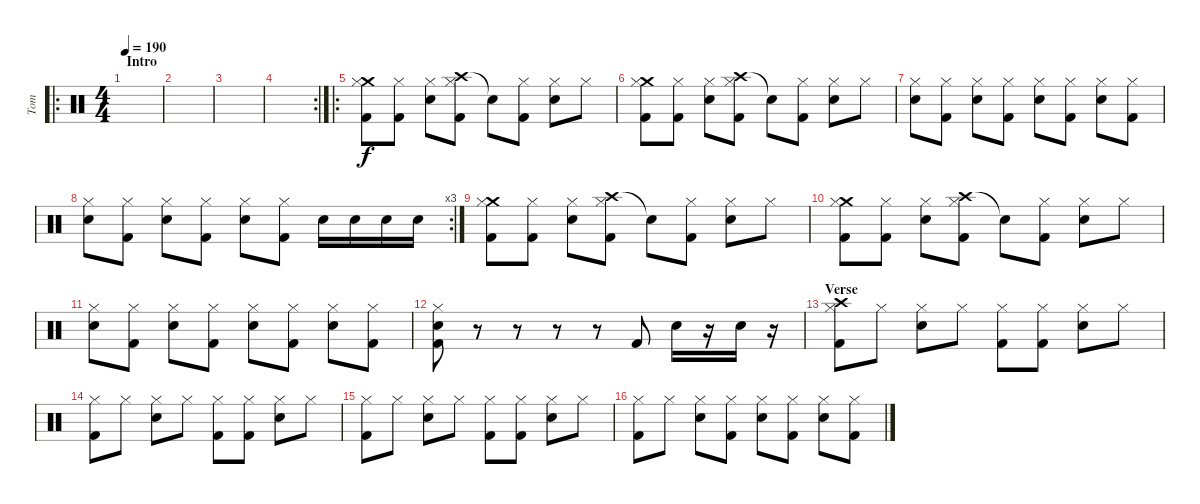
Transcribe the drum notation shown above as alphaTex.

\track ("Tom" "Tom") {instrument percussion}
\staff {score}
\articulation defaults
\ro
\ts (4 4)
\section ("" "Intro")
\tempo 190
\clef neutral
\ks c
|
|
|
\rc 2
|
\ro
("Crash medium (hit)" "Hi-Hat (closed)" "Kick (hit) 2").8 ("Hi-Hat (closed)" "Kick (hit) 2").8 ("Hi-Hat (closed)" "Electric Snare (hit)").8 ("Crash high (hit)" "Hi-Hat (closed)" "Kick (hit) 2").8 "Snare (hit)"{t}.8 ("Hi-Hat (closed)" "Kick (hit) 2").8 ("Hi-Hat (closed)" "Electric Snare (hit)").8 "Hi-Hat (closed)".8 |
("Crash medium (hit)" "Hi-Hat (closed)" "Kick (hit) 2").8 ("Hi-Hat (closed)" "Kick (hit) 2").8 ("Hi-Hat (closed)" "Electric Snare (hit)").8 ("Crash high (hit)" "Hi-Hat (closed)" "Kick (hit) 2").8 "Snare (hit)"{t}.8 ("Hi-Hat (closed)" "Kick (hit) 2").8 ("Hi-Hat (closed)" "Electric Snare (hit)").8 "Hi-Hat (closed)".8 |
("Hi-Hat (closed)" "Electric Snare (hit)").8 ("Hi-Hat (closed)" "Kick (hit) 2").8 ("Hi-Hat (closed)" "Electric Snare (hit)").8 ("Hi-Hat (closed)" "Kick (hit) 2").8 ("Hi-Hat (closed)" "Electric Snare (hit)").8 ("Hi-Hat (closed)" "Kick (hit) 2").8 ("Hi-Hat (closed)" "Electric Snare (hit)").8 ("Hi-Hat (closed)" "Kick (hit) 2").8 |
\rc 3
("Hi-Hat (closed)" "Electric Snare (hit)").8 ("Hi-Hat (closed)" "Kick (hit) 2").8 ("Hi-Hat (closed)" "Electric Snare (hit)").8 ("Hi-Hat (closed)" "Kick (hit) 2").8 ("Hi-Hat (closed)" "Electric Snare (hit)").8 ("Hi-Hat (closed)" "Kick (hit) 2").8 "Electric Snare (hit)".16 "Electric Snare (hit)".16 "Electric Snare (hit)".16 "Electric Snare (hit)".16 |
("Crash medium (hit)" "Hi-Hat (closed)" "Kick (hit) 2").8 ("Hi-Hat (closed)" "Kick (hit) 2").8 ("Hi-Hat (closed)" "Electric Snare (hit)").8 ("Crash high (hit)" "Hi-Hat (closed)" "Kick (hit) 2").8 "Snare (hit)"{t}.8 ("Hi-Hat (closed)" "Kick (hit) 2").8 ("Hi-Hat (closed)" "Electric Snare (hit)").8 "Hi-Hat (closed)".8 |
("Crash medium (hit)" "Hi-Hat (closed)" "Kick (hit) 2").8 ("Hi-Hat (closed)" "Kick (hit) 2").8 ("Hi-Hat (closed)" "Electric Snare (hit)").8 ("Crash high (hit)" "Hi-Hat (closed)" "Kick (hit) 2").8 "Snare (hit)"{t}.8 ("Hi-Hat (closed)" "Kick (hit) 2").8 ("Hi-Hat (closed)" "Electric Snare (hit)").8 "Hi-Hat (closed)".8 |
("Hi-Hat (closed)" "Electric Snare (hit)").8 ("Hi-Hat (closed)" "Kick (hit) 2").8 ("Hi-Hat (closed)" "Electric Snare (hit)").8 ("Hi-Hat (closed)" "Kick (hit) 2").8 ("Hi-Hat (closed)" "Electric Snare (hit)").8 ("Hi-Hat (closed)" "Kick (hit) 2").8 ("Hi-Hat (closed)" "Electric Snare (hit)").8 ("Hi-Hat (closed)" "Kick (hit) 2").8 |
("Hi-Hat (closed)" "Electric Snare (hit)" "Kick (hit) 2").8 r.8 r.8 r.8 r.8 "Kick (hit) 2".8 "Electric Snare (hit)".16 r.16 "Electric Snare (hit)".16 r.16 |
\section ("" "Verse")
("Crash high (hit)" "Hi-Hat (closed)" "Kick (hit) 2").8 "Hi-Hat (closed)".8 ("Hi-Hat (closed)" "Electric Snare (hit)").8 "Hi-Hat (closed)".8 ("Hi-Hat (closed)" "Kick (hit) 2").8 ("Hi-Hat (closed)" "Kick (hit) 2").8 ("Hi-Hat (closed)" "Electric Snare (hit)").8 "Hi-Hat (closed)".8 |
("Hi-Hat (closed)" "Kick (hit) 2").8 "Hi-Hat (closed)".8 ("Hi-Hat (closed)" "Electric Snare (hit)").8 "Hi-Hat (closed)".8 ("Hi-Hat (closed)" "Kick (hit) 2").8 ("Hi-Hat (closed)" "Kick (hit) 2").8 ("Hi-Hat (closed)" "Electric Snare (hit)").8 "Hi-Hat (closed)".8 |
("Hi-Hat (closed)" "Kick (hit) 2").8 "Hi-Hat (closed)".8 ("Hi-Hat (closed)" "Electric Snare (hit)").8 "Hi-Hat (closed)".8 ("Hi-Hat (closed)" "Kick (hit) 2").8 ("Hi-Hat (closed)" "Kick (hit) 2").8 ("Hi-Hat (closed)" "Electric Snare (hit)").8 "Hi-Hat (closed)".8 |
("Hi-Hat (closed)" "Kick (hit) 2").8 "Hi-Hat (closed)".8 ("Hi-Hat (closed)" "Electric Snare (hit)").8 ("Hi-Hat (closed)" "Kick (hit) 2").8 ("Hi-Hat (closed)" "Electric Snare (hit)").8 ("Hi-Hat (closed)" "Kick (hit) 2").8 ("Hi-Hat (closed)" "Electric Snare (hit)").8 ("Hi-Hat (closed)" "Kick (hit) 2").8
